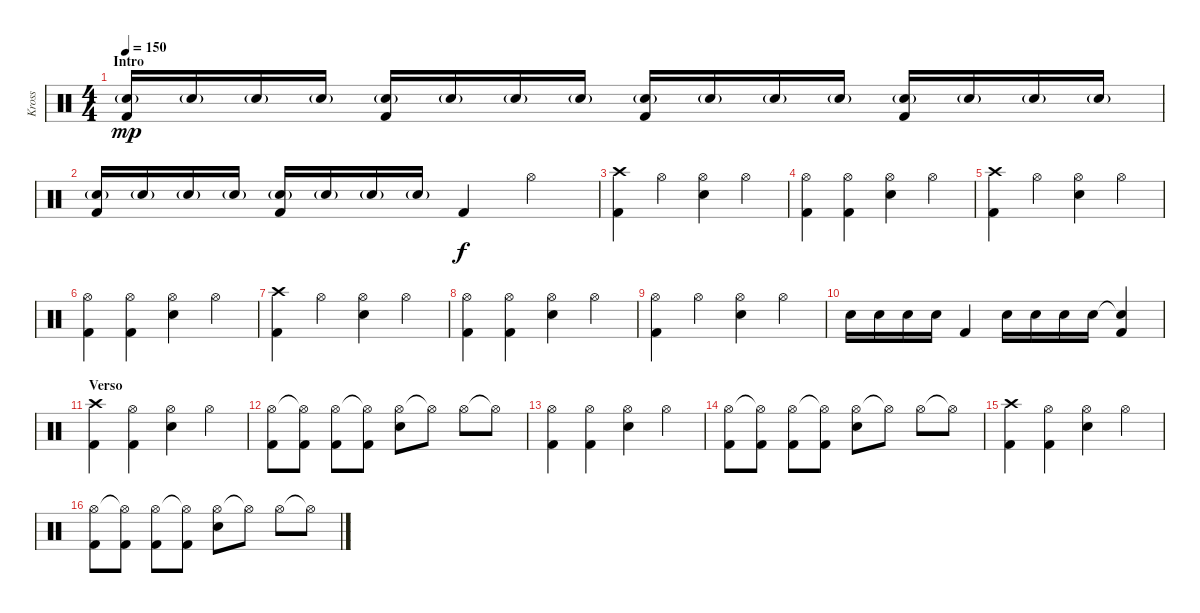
\track ("Kross" "Kross") {instrument percussion}
\staff {score}
\articulation defaults
\ts (4 4)
\section ("" "Intro")
\tempo 150
\clef neutral
\ks c
("Snare (hit) 2"{g} "Kick (hit) 2").16{dy mp volume 0} "Snare (hit) 2"{g}.16{volume 13} "Snare (hit) 2"{g}.16 "Snare (hit) 2"{g}.16 ("Snare (hit) 2"{g} "Kick (hit) 2").16 "Snare (hit) 2"{g}.16 "Snare (hit) 2"{g}.16 "Snare (hit) 2"{g}.16 ("Snare (hit) 2"{g} "Kick (hit) 2").16 "Snare (hit) 2"{g}.16 "Snare (hit) 2"{g}.16 "Snare (hit) 2"{g}.16 ("Snare (hit) 2"{g} "Kick (hit) 2").16 "Snare (hit) 2"{g}.16 "Snare (hit) 2"{g}.16 "Snare (hit) 2"{g}.16 |
("Snare (hit) 2"{g} "Kick (hit) 2").16 "Snare (hit) 2"{g}.16 "Snare (hit) 2"{g}.16 "Snare (hit) 2"{g}.16 ("Snare (hit) 2"{g} "Kick (hit) 2").16 "Snare (hit) 2"{g}.16 "Snare (hit) 2"{g}.16 "Snare (hit) 2"{g}.16 "Kick (hit) 2".4{dy f} "Hi-Hat (open)".4 |
("Crash high (hit)" "Kick (hit) 2").4 "Hi-Hat (open)".4 ("Hi-Hat (open)" "Snare (hit) 2").4 "Hi-Hat (open)".4 |
("Hi-Hat (open)" "Kick (hit) 2").4 ("Hi-Hat (open)" "Kick (hit) 2").4 ("Hi-Hat (open)" "Snare (hit) 2").4 "Hi-Hat (open)".4 |
("Crash high (hit)" "Kick (hit) 2").4 "Hi-Hat (open)".4 ("Hi-Hat (open)" "Snare (hit) 2").4 "Hi-Hat (open)".4 |
("Hi-Hat (open)" "Kick (hit) 2").4 ("Hi-Hat (open)" "Kick (hit) 2").4 ("Hi-Hat (open)" "Snare (hit) 2").4 "Hi-Hat (open)".4 |
("Crash high (hit)" "Kick (hit) 2").4 "Hi-Hat (open)".4 ("Hi-Hat (open)" "Snare (hit) 2").4 "Hi-Hat (open)".4 |
("Hi-Hat (open)" "Kick (hit) 2").4 ("Hi-Hat (open)" "Kick (hit) 2").4 ("Hi-Hat (open)" "Snare (hit) 2").4 "Hi-Hat (open)".4 |
("Hi-Hat (open)" "Kick (hit) 2").4 "Hi-Hat (open)".4 ("Hi-Hat (open)" "Snare (hit) 2").4 "Hi-Hat (open)".4 |
"Snare (hit) 2".16 "Snare (hit) 2".16 "Snare (hit) 2".16 "Snare (hit) 2".16 "Kick (hit) 2".4 "Snare (hit) 2".16 "Snare (hit) 2".16 "Snare (hit) 2".16 "Snare (hit) 2".16 ("Snare (hit)"{t} "Kick (hit) 2").4 |
\section ("" "Verso")
("Crash high (hit)" "Kick (hit) 2").4 ("Hi-Hat (open)" "Kick (hit) 2").4 ("Hi-Hat (open)" "Snare (hit) 2").4 "Hi-Hat (open)".4 |
("Hi-Hat (open)" "Kick (hit) 2").8 ("Hi-Hat (open)"{t} "Kick (hit) 2").8 ("Hi-Hat (open)" "Kick (hit) 2").8 ("Hi-Hat (open)"{t} "Kick (hit) 2").8 ("Hi-Hat (open)" "Snare (hit) 2").8 "Hi-Hat (open)"{t}.8 "Hi-Hat (open)".8 "Hi-Hat (open)"{t}.8 |
("Hi-Hat (open)" "Kick (hit) 2").4 ("Hi-Hat (open)" "Kick (hit) 2").4 ("Hi-Hat (open)" "Snare (hit) 2").4 "Hi-Hat (open)".4 |
("Hi-Hat (open)" "Kick (hit) 2").8 ("Hi-Hat (open)"{t} "Kick (hit) 2").8 ("Hi-Hat (open)" "Kick (hit) 2").8 ("Hi-Hat (open)"{t} "Kick (hit) 2").8 ("Hi-Hat (open)" "Snare (hit) 2").8 "Hi-Hat (open)"{t}.8 "Hi-Hat (open)".8 "Hi-Hat (open)"{t}.8 |
("Crash high (hit)" "Kick (hit) 2").4 ("Hi-Hat (open)" "Kick (hit) 2").4 ("Hi-Hat (open)" "Snare (hit) 2").4 "Hi-Hat (open)".4 |
("Hi-Hat (open)" "Kick (hit) 2").8 ("Hi-Hat (open)"{t} "Kick (hit) 2").8 ("Hi-Hat (open)" "Kick (hit) 2").8 ("Hi-Hat (open)"{t} "Kick (hit) 2").8 ("Hi-Hat (open)" "Snare (hit) 2").8 "Hi-Hat (open)"{t}.8 "Hi-Hat (open)".8 "Hi-Hat (open)"{t}.8
